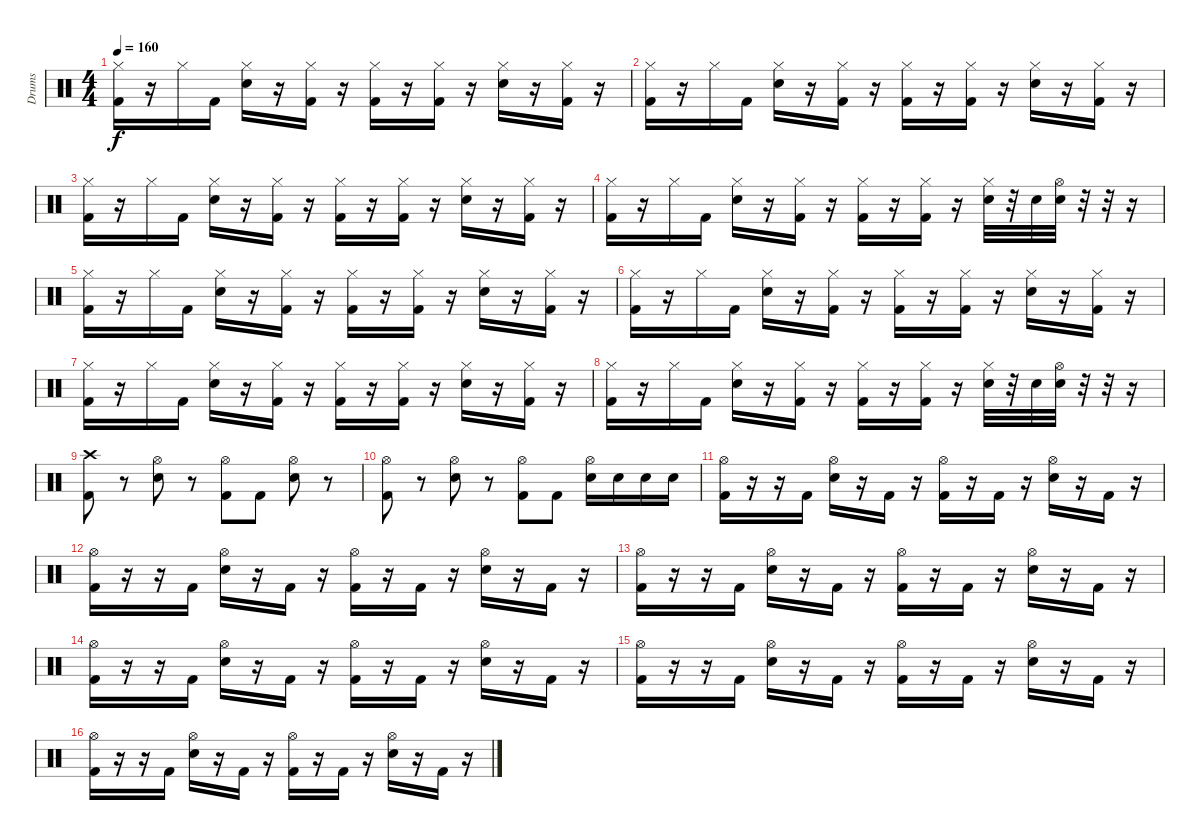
\track ("Drums" "Drums") {instrument percussion}
\staff {score}
\articulation defaults
\ts (4 4)
\tempo 160
\clef neutral
\ks c
("Hi-Hat (closed)" "Kick (hit) 2").16{dy f} r.16 "Hi-Hat (closed)".16 "Kick (hit) 2".16 ("Hi-Hat (closed)" "Snare (hit) 2").16 r.16 ("Hi-Hat (closed)" "Kick (hit) 2").16 r.16 ("Hi-Hat (closed)" "Kick (hit) 2").16 r.16 ("Hi-Hat (closed)" "Kick (hit) 2").16 r.16 ("Hi-Hat (closed)" "Snare (hit) 2").16 r.16 ("Hi-Hat (closed)" "Kick (hit) 2").16 r.16 |
("Hi-Hat (closed)" "Kick (hit) 2").16 r.16 "Hi-Hat (closed)".16 "Kick (hit) 2".16 ("Hi-Hat (closed)" "Snare (hit) 2").16 r.16 ("Hi-Hat (closed)" "Kick (hit) 2").16 r.16 ("Hi-Hat (closed)" "Kick (hit) 2").16 r.16 ("Hi-Hat (closed)" "Kick (hit) 2").16 r.16 ("Hi-Hat (closed)" "Snare (hit) 2").16 r.16 ("Hi-Hat (closed)" "Kick (hit) 2").16 r.16 |
("Hi-Hat (closed)" "Kick (hit) 2").16 r.16 "Hi-Hat (closed)".16 "Kick (hit) 2".16 ("Hi-Hat (closed)" "Snare (hit) 2").16 r.16 ("Hi-Hat (closed)" "Kick (hit) 2").16 r.16 ("Hi-Hat (closed)" "Kick (hit) 2").16 r.16 ("Hi-Hat (closed)" "Kick (hit) 2").16 r.16 ("Hi-Hat (closed)" "Snare (hit) 2").16 r.16 ("Hi-Hat (closed)" "Kick (hit) 2").16 r.16 |
("Hi-Hat (closed)" "Kick (hit) 2").16 r.16 "Hi-Hat (closed)".16 "Kick (hit) 2".16 ("Hi-Hat (closed)" "Snare (hit) 2").16 r.16 ("Hi-Hat (closed)" "Kick (hit) 2").16 r.16 ("Hi-Hat (closed)" "Kick (hit) 2").16 r.16 ("Hi-Hat (closed)" "Kick (hit) 2").16 r.16 ("Hi-Hat (closed)" "Snare (hit) 2").32 r.32 "Snare (hit) 2".32 ("Hi-Hat (open)" "Snare (hit) 2").32 r.32 r.32 r.16 |
("Hi-Hat (closed)" "Kick (hit) 2").16 r.16 "Hi-Hat (closed)".16 "Kick (hit) 2".16 ("Hi-Hat (closed)" "Snare (hit) 2").16 r.16 ("Hi-Hat (closed)" "Kick (hit) 2").16 r.16 ("Hi-Hat (closed)" "Kick (hit) 2").16 r.16 ("Hi-Hat (closed)" "Kick (hit) 2").16 r.16 ("Hi-Hat (closed)" "Snare (hit) 2").16 r.16 ("Hi-Hat (closed)" "Kick (hit) 2").16 r.16 |
("Hi-Hat (closed)" "Kick (hit) 2").16 r.16 "Hi-Hat (closed)".16 "Kick (hit) 2".16 ("Hi-Hat (closed)" "Snare (hit) 2").16 r.16 ("Hi-Hat (closed)" "Kick (hit) 2").16 r.16 ("Hi-Hat (closed)" "Kick (hit) 2").16 r.16 ("Hi-Hat (closed)" "Kick (hit) 2").16 r.16 ("Hi-Hat (closed)" "Snare (hit) 2").16 r.16 ("Hi-Hat (closed)" "Kick (hit) 2").16 r.16 |
("Hi-Hat (closed)" "Kick (hit) 2").16 r.16 "Hi-Hat (closed)".16 "Kick (hit) 2".16 ("Hi-Hat (closed)" "Snare (hit) 2").16 r.16 ("Hi-Hat (closed)" "Kick (hit) 2").16 r.16 ("Hi-Hat (closed)" "Kick (hit) 2").16 r.16 ("Hi-Hat (closed)" "Kick (hit) 2").16 r.16 ("Hi-Hat (closed)" "Snare (hit) 2").16 r.16 ("Hi-Hat (closed)" "Kick (hit) 2").16 r.16 |
("Hi-Hat (closed)" "Kick (hit) 2").16 r.16 "Hi-Hat (closed)".16 "Kick (hit) 2".16 ("Hi-Hat (closed)" "Snare (hit) 2").16 r.16 ("Hi-Hat (closed)" "Kick (hit) 2").16 r.16 ("Hi-Hat (closed)" "Kick (hit) 2").16 r.16 ("Hi-Hat (closed)" "Kick (hit) 2").16 r.16 ("Hi-Hat (closed)" "Snare (hit) 2").32 r.32 "Snare (hit) 2".32 ("Hi-Hat (open)" "Snare (hit) 2").32 r.32 r.32 r.16 |
("Crash high (hit)" "Kick (hit) 2").8 r.8 ("Hi-Hat (open)" "Snare (hit) 2").8 r.8 ("Hi-Hat (open)" "Kick (hit) 2").8 "Kick (hit) 2".8 ("Hi-Hat (open)" "Snare (hit) 2").8 r.8 |
("Hi-Hat (open)" "Kick (hit) 2").8 r.8 ("Hi-Hat (open)" "Snare (hit) 2").8 r.8 ("Hi-Hat (open)" "Kick (hit) 2").8 "Kick (hit) 2".8 ("Hi-Hat (open)" "Snare (hit) 2").16 "Snare (hit) 2".16 "Snare (hit) 2".16 "Snare (hit) 2".16 |
("Hi-Hat (open)" "Kick (hit) 2").16 r.16 r.16 "Kick (hit) 2".16 ("Hi-Hat (open)" "Snare (hit) 2").16 r.16 "Kick (hit) 2".16 r.16 ("Hi-Hat (open)" "Kick (hit) 2").16 r.16 "Kick (hit) 2".16 r.16 ("Hi-Hat (open)" "Snare (hit) 2").16 r.16 "Kick (hit) 2".16 r.16 |
("Hi-Hat (open)" "Kick (hit) 2").16 r.16 r.16 "Kick (hit) 2".16 ("Hi-Hat (open)" "Snare (hit) 2").16 r.16 "Kick (hit) 2".16 r.16 ("Hi-Hat (open)" "Kick (hit) 2").16 r.16 "Kick (hit) 2".16 r.16 ("Hi-Hat (open)" "Snare (hit) 2").16 r.16 "Kick (hit) 2".16 r.16 |
("Hi-Hat (open)" "Kick (hit) 2").16 r.16 r.16 "Kick (hit) 2".16 ("Hi-Hat (open)" "Snare (hit) 2").16 r.16 "Kick (hit) 2".16 r.16 ("Hi-Hat (open)" "Kick (hit) 2").16 r.16 "Kick (hit) 2".16 r.16 ("Hi-Hat (open)" "Snare (hit) 2").16 r.16 "Kick (hit) 2".16 r.16 |
("Hi-Hat (open)" "Kick (hit) 2").16 r.16 r.16 "Kick (hit) 2".16 ("Hi-Hat (open)" "Snare (hit) 2").16 r.16 "Kick (hit) 2".16 r.16 ("Hi-Hat (open)" "Kick (hit) 2").16 r.16 "Kick (hit) 2".16 r.16 ("Hi-Hat (open)" "Snare (hit) 2").16 r.16 "Kick (hit) 2".16 r.16 |
("Hi-Hat (open)" "Kick (hit) 2").16 r.16 r.16 "Kick (hit) 2".16 ("Hi-Hat (open)" "Snare (hit) 2").16 r.16 "Kick (hit) 2".16 r.16 ("Hi-Hat (open)" "Kick (hit) 2").16 r.16 "Kick (hit) 2".16 r.16 ("Hi-Hat (open)" "Snare (hit) 2").16 r.16 "Kick (hit) 2".16 r.16 |
("Hi-Hat (open)" "Kick (hit) 2").16 r.16 r.16 "Kick (hit) 2".16 ("Hi-Hat (open)" "Snare (hit) 2").16 r.16 "Kick (hit) 2".16 r.16 ("Hi-Hat (open)" "Kick (hit) 2").16 r.16 "Kick (hit) 2".16 r.16 ("Hi-Hat (open)" "Snare (hit) 2").16 r.16 "Kick (hit) 2".16 r.16
